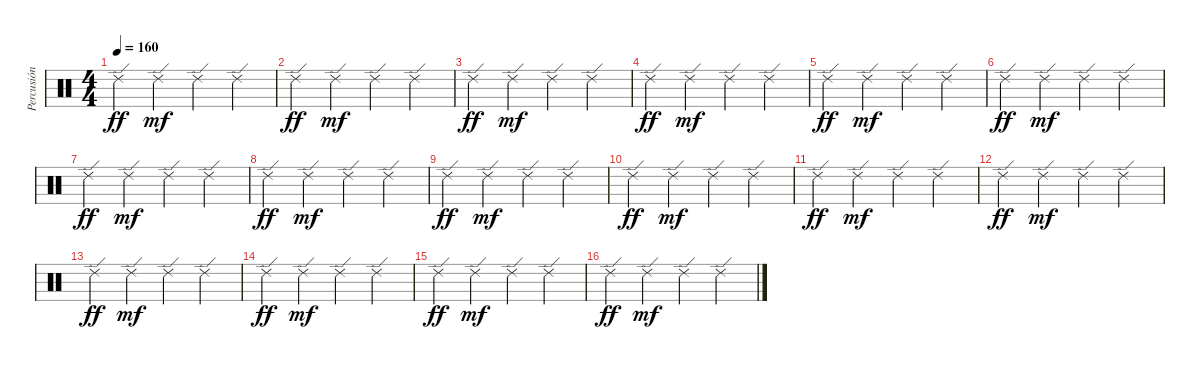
\track ("Percusión" "Percusión") {instrument percussion}
\staff {score}
\articulation defaults
\ts (4 4)
\tempo 160
\clef neutral
\ks c "Ride (edge) 2".4{dy ff} "Ride (edge) 2".4{dy mf} "Ride (edge) 2".4 "Ride (edge) 2".4
|
"Ride (edge) 2".4{dy ff} "Ride (edge) 2".4{dy mf} "Ride (edge) 2".4 "Ride (edge) 2".4 |
"Ride (edge) 2".4{dy ff} "Ride (edge) 2".4{dy mf} "Ride (edge) 2".4 "Ride (edge) 2".4 |
"Ride (edge) 2".4{dy ff} "Ride (edge) 2".4{dy mf} "Ride (edge) 2".4 "Ride (edge) 2".4 |
"Ride (edge) 2".4{dy ff} "Ride (edge) 2".4{dy mf} "Ride (edge) 2".4 "Ride (edge) 2".4 |
"Ride (edge) 2".4{dy ff} "Ride (edge) 2".4{dy mf} "Ride (edge) 2".4 "Ride (edge) 2".4 |
"Ride (edge) 2".4{dy ff} "Ride (edge) 2".4{dy mf} "Ride (edge) 2".4 "Ride (edge) 2".4 |
"Ride (edge) 2".4{dy ff} "Ride (edge) 2".4{dy mf} "Ride (edge) 2".4 "Ride (edge) 2".4 |
"Ride (edge) 2".4{dy ff} "Ride (edge) 2".4{dy mf} "Ride (edge) 2".4 "Ride (edge) 2".4 |
"Ride (edge) 2".4{dy ff} "Ride (edge) 2".4{dy mf} "Ride (edge) 2".4 "Ride (edge) 2".4 |
"Ride (edge) 2".4{dy ff} "Ride (edge) 2".4{dy mf} "Ride (edge) 2".4 "Ride (edge) 2".4 |
"Ride (edge) 2".4{dy ff} "Ride (edge) 2".4{dy mf} "Ride (edge) 2".4 "Ride (edge) 2".4 |
"Ride (edge) 2".4{dy ff} "Ride (edge) 2".4{dy mf} "Ride (edge) 2".4 "Ride (edge) 2".4 |
"Ride (edge) 2".4{dy ff} "Ride (edge) 2".4{dy mf} "Ride (edge) 2".4 "Ride (edge) 2".4 |
"Ride (edge) 2".4{dy ff} "Ride (edge) 2".4{dy mf} "Ride (edge) 2".4 "Ride (edge) 2".4 |
"Ride (edge) 2".4{dy ff} "Ride (edge) 2".4{dy mf} "Ride (edge) 2".4 "Ride (edge) 2".4
